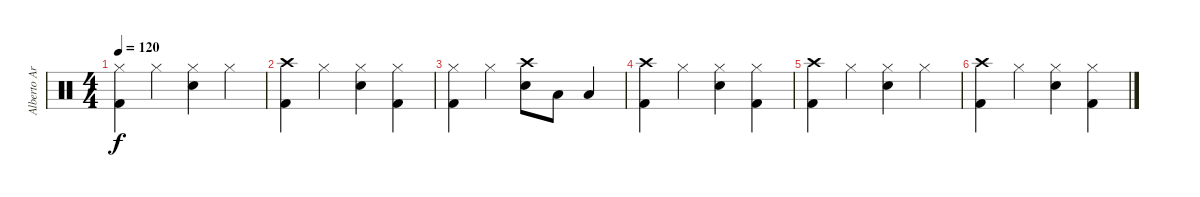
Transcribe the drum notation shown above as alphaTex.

\track ("Alberto Ardines (Batería)" "Alberto Ar") {instrument percussion}
\staff {score}
\articulation defaults
\ts (4 4)
\tempo 120
\clef neutral
\ks c
("Hi-Hat (closed)" "Kick (hit) 2").4{dy f} "Hi-Hat (closed)".4 ("Hi-Hat (closed)" "Electric Snare (hit)").4 "Hi-Hat (closed)".4 |
("Crash high (hit)" "Kick (hit) 2").4 "Hi-Hat (closed)".4 ("Hi-Hat (closed)" "Electric Snare (hit)").4 ("Hi-Hat (closed)" "Kick (hit) 2").4 |
("Hi-Hat (closed)" "Kick (hit) 2").4 "Hi-Hat (closed)".4 ("Crash high (hit)" "Electric Snare (hit)").8 "Low Floor Tom (hit)".8 "Low Floor Tom (hit)".4 |
("Crash high (hit)" "Kick (hit) 2").4 "Hi-Hat (closed)".4 ("Hi-Hat (closed)" "Electric Snare (hit)").4 ("Hi-Hat (closed)" "Kick (hit) 2").4 |
("Crash high (hit)" "Kick (hit) 2").4 "Hi-Hat (closed)".4 ("Hi-Hat (closed)" "Electric Snare (hit)").4 "Hi-Hat (closed)".4 |
("Crash high (hit)" "Kick (hit) 2").4 "Hi-Hat (closed)".4 ("Hi-Hat (closed)" "Electric Snare (hit)").4 ("Hi-Hat (closed)" "Kick (hit) 2").4
